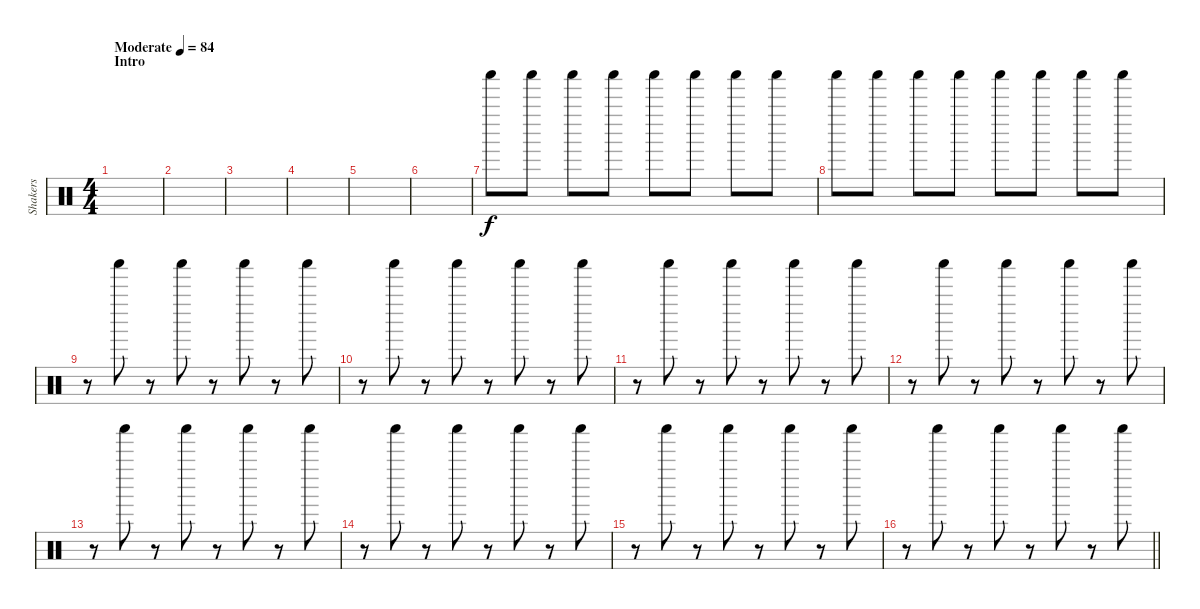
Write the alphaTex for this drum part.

\track ("Shakers" "Shakers") {instrument percussion}
\staff {score}
\articulation defaults
\ts (4 4)
\section ("" "Intro")
\tempo (84 "Moderate")
\clef neutral
\ks c
|
|
|
|
|
|
"Shaker (hit)".8 "Shaker (hit)".8 "Shaker (hit)".8 "Shaker (hit)".8 "Shaker (hit)".8 "Shaker (hit)".8 "Shaker (hit)".8 "Shaker (hit)".8 |
"Shaker (hit)".8 "Shaker (hit)".8 "Shaker (hit)".8 "Shaker (hit)".8 "Shaker (hit)".8 "Shaker (hit)".8 "Shaker (hit)".8 "Shaker (hit)".8 |
r.8 "Shaker (hit)".8 r.8 "Shaker (hit)".8 r.8 "Shaker (hit)".8 r.8 "Shaker (hit)".8 |
r.8 "Shaker (hit)".8 r.8 "Shaker (hit)".8 r.8 "Shaker (hit)".8 r.8 "Shaker (hit)".8 |
r.8 "Shaker (hit)".8 r.8 "Shaker (hit)".8 r.8 "Shaker (hit)".8 r.8 "Shaker (hit)".8 |
r.8 "Shaker (hit)".8 r.8 "Shaker (hit)".8 r.8 "Shaker (hit)".8 r.8 "Shaker (hit)".8 |
r.8 "Shaker (hit)".8 r.8 "Shaker (hit)".8 r.8 "Shaker (hit)".8 r.8 "Shaker (hit)".8 |
r.8 "Shaker (hit)".8 r.8 "Shaker (hit)".8 r.8 "Shaker (hit)".8 r.8 "Shaker (hit)".8 |
r.8 "Shaker (hit)".8 r.8 "Shaker (hit)".8 r.8 "Shaker (hit)".8 r.8 "Shaker (hit)".8 |
\barLineRight lightlight
r.8 "Shaker (hit)".8 r.8 "Shaker (hit)".8 r.8 "Shaker (hit)".8 r.8 "Shaker (hit)".8
